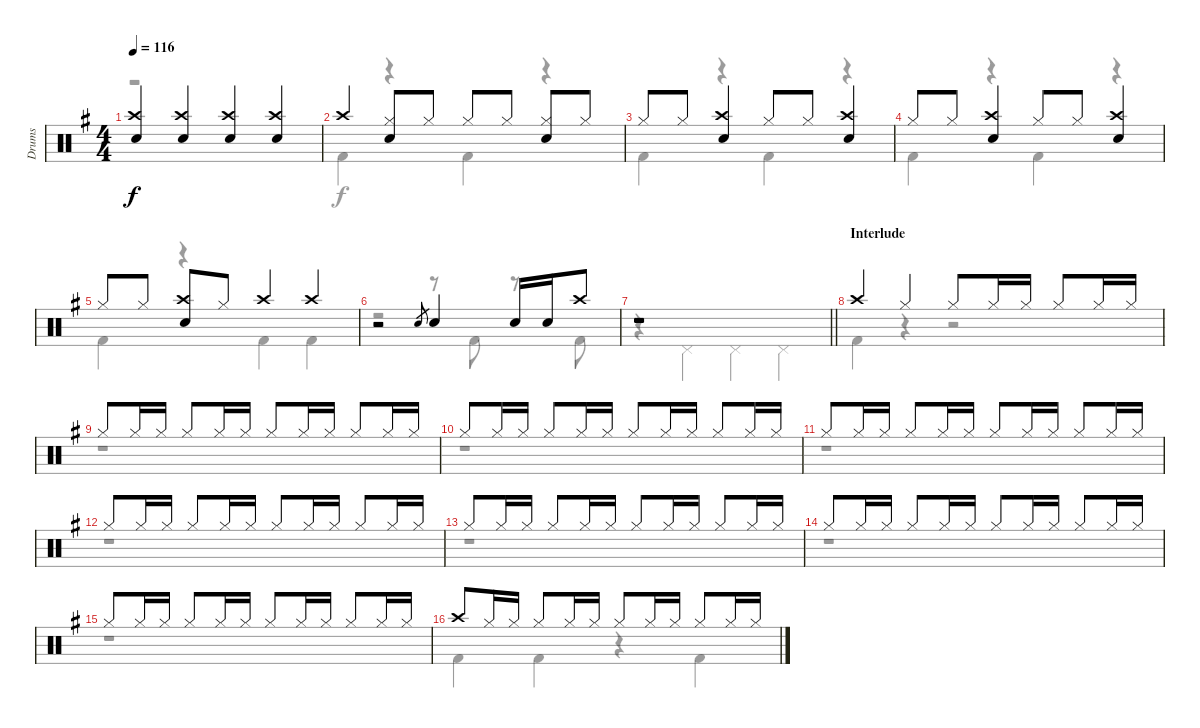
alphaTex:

\track ("Drums" "Drums") {instrument percussion}
\staff {score}
\articulation defaults
\voice
\ts (4 4)
\tempo 116
\clef neutral
\ks g
("Crash high (hit)" "Snare (hit) 2").4{dy f} ("Crash high (hit)" "Snare (hit) 2").4 ("Crash high (hit)" "Snare (hit) 2").4 ("Crash high (hit)" "Snare (hit) 2").4 |
"Crash high (hit)".4 ("Hi-Hat (closed)" "Snare (hit) 2").8 "Hi-Hat (closed)".8 "Hi-Hat (closed)".8 "Hi-Hat (closed)".8 ("Hi-Hat (closed)" "Snare (hit) 2").8 "Hi-Hat (closed)".8 |
"Hi-Hat (closed)".8 "Hi-Hat (closed)".8 ("Crash high (hit)" "Snare (hit) 2").4 "Hi-Hat (closed)".8 "Hi-Hat (closed)".8 ("Crash high (hit)" "Snare (hit) 2").4 |
"Hi-Hat (closed)".8 "Hi-Hat (closed)".8 ("Crash high (hit)" "Snare (hit) 2").4 "Hi-Hat (closed)".8 "Hi-Hat (closed)".8 ("Crash high (hit)" "Snare (hit) 2").4 |
"Hi-Hat (closed)".8 "Hi-Hat (closed)".8 ("Crash high (hit)" "Snare (hit) 2").8 "Hi-Hat (closed)".8 "Crash high (hit)".4 "Crash high (hit)".4 |
r.2 "Snare (hit) 2".8{gr} "Snare (hit) 2".4 "Snare (hit) 2".16 "Snare (hit) 2".16 "Crash high (hit)".8 |
\barLineRight lightlight
r.1 |
\section ("" "Interlude")
"Crash high (hit)".4 "Hi-Hat (closed)".4 "Hi-Hat (closed)".8 "Hi-Hat (closed)".16 "Hi-Hat (closed)".16 "Hi-Hat (closed)".8 "Hi-Hat (closed)".16 "Hi-Hat (closed)".16 |
"Hi-Hat (closed)".8 "Hi-Hat (closed)".16 "Hi-Hat (closed)".16 "Hi-Hat (closed)".8 "Hi-Hat (closed)".16 "Hi-Hat (closed)".16 "Hi-Hat (closed)".8 "Hi-Hat (closed)".16 "Hi-Hat (closed)".16 "Hi-Hat (closed)".8 "Hi-Hat (closed)".16 "Hi-Hat (closed)".16 |
"Hi-Hat (closed)".8 "Hi-Hat (closed)".16 "Hi-Hat (closed)".16 "Hi-Hat (closed)".8 "Hi-Hat (closed)".16 "Hi-Hat (closed)".16 "Hi-Hat (closed)".8 "Hi-Hat (closed)".16 "Hi-Hat (closed)".16 "Hi-Hat (closed)".8 "Hi-Hat (closed)".16 "Hi-Hat (closed)".16 |
"Hi-Hat (closed)".8 "Hi-Hat (closed)".16 "Hi-Hat (closed)".16 "Hi-Hat (closed)".8 "Hi-Hat (closed)".16 "Hi-Hat (closed)".16 "Hi-Hat (closed)".8 "Hi-Hat (closed)".16 "Hi-Hat (closed)".16 "Hi-Hat (closed)".8 "Hi-Hat (closed)".16 "Hi-Hat (closed)".16 |
"Hi-Hat (closed)".8 "Hi-Hat (closed)".16 "Hi-Hat (closed)".16 "Hi-Hat (closed)".8 "Hi-Hat (closed)".16 "Hi-Hat (closed)".16 "Hi-Hat (closed)".8 "Hi-Hat (closed)".16 "Hi-Hat (closed)".16 "Hi-Hat (closed)".8 "Hi-Hat (closed)".16 "Hi-Hat (closed)".16 |
"Hi-Hat (closed)".8 "Hi-Hat (closed)".16 "Hi-Hat (closed)".16 "Hi-Hat (closed)".8 "Hi-Hat (closed)".16 "Hi-Hat (closed)".16 "Hi-Hat (closed)".8 "Hi-Hat (closed)".16 "Hi-Hat (closed)".16 "Hi-Hat (closed)".8 "Hi-Hat (closed)".16 "Hi-Hat (closed)".16 |
"Hi-Hat (closed)".8 "Hi-Hat (closed)".16 "Hi-Hat (closed)".16 "Hi-Hat (closed)".8 "Hi-Hat (closed)".16 "Hi-Hat (closed)".16 "Hi-Hat (closed)".8 "Hi-Hat (closed)".16 "Hi-Hat (closed)".16 "Hi-Hat (closed)".8 "Hi-Hat (closed)".16 "Hi-Hat (closed)".16 |
"Hi-Hat (closed)".8 "Hi-Hat (closed)".16 "Hi-Hat (closed)".16 "Hi-Hat (closed)".8 "Hi-Hat (closed)".16 "Hi-Hat (closed)".16 "Hi-Hat (closed)".8 "Hi-Hat (closed)".16 "Hi-Hat (closed)".16 "Hi-Hat (closed)".8 "Hi-Hat (closed)".16 "Hi-Hat (closed)".16 |
"Crash high (hit)".8 "Hi-Hat (closed)".16 "Hi-Hat (closed)".16 "Hi-Hat (closed)".8 "Hi-Hat (closed)".16 "Hi-Hat (closed)".16 "Hi-Hat (closed)".8 "Hi-Hat (closed)".16 "Hi-Hat (closed)".16 "Hi-Hat (closed)".8 "Hi-Hat (closed)".16 "Hi-Hat (closed)".16
\voice
\clef neutral
\ottava regular
\simile none
\ks g
r.1{dy f} |
"Kick (hit) 2".4 r.4 "Kick (hit) 2".4 r.4 |
"Kick (hit) 2".4 r.4 "Kick (hit) 2".4 r.4 |
"Kick (hit) 2".4 r.4 "Kick (hit) 2".4 r.4 |
"Kick (hit) 2".4 r.4 "Kick (hit) 2".4 "Kick (hit) 2".4 |
r.2 r.8 "Kick (hit) 2".8 r.8 "Kick (hit) 2".8 |
\barLineRight lightlight
r.4 "Pedal Hi-Hat (hit)".4 "Pedal Hi-Hat (hit)".4 "Pedal Hi-Hat (hit)".4 |
"Kick (hit) 2".4 r.4 r.2 |
r.1 |
r.1 |
r.1 |
r.1 |
r.1 |
r.1 |
r.1 |
"Kick (hit) 2".4 "Kick (hit) 2".4 r.4 "Kick (hit) 2".4
